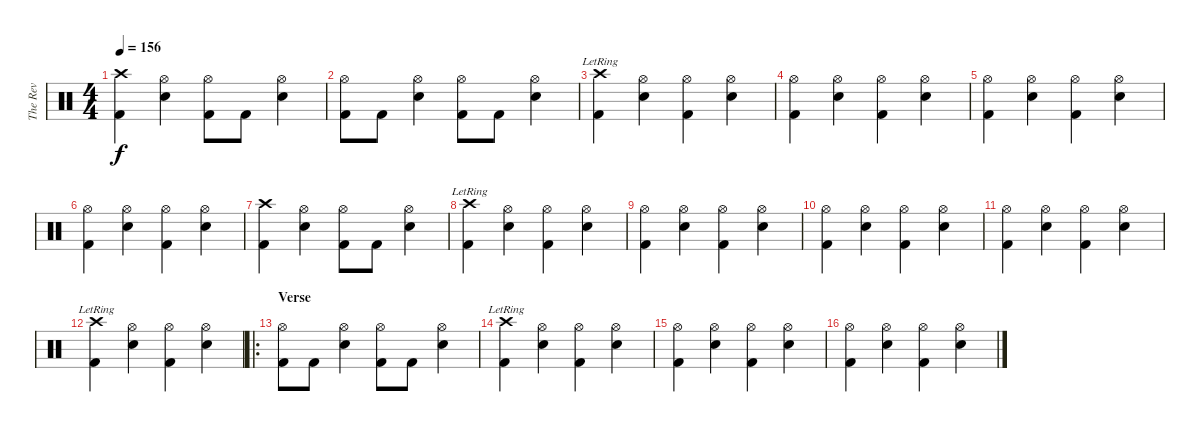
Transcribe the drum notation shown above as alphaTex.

\track ("The Rev" "The Rev") {instrument percussion}
\staff {score}
\articulation defaults
\ts (4 4)
\tempo 156
\clef neutral
\ks c
("Crash high (hit)" "Kick (hit) 2").4{dy f} ("Hi-Hat (open)" "Electric Snare (hit)").4 ("Hi-Hat (open)" "Kick (hit) 2").8 "Kick (hit) 2".8 ("Hi-Hat (open)" "Electric Snare (hit)").4 |
("Hi-Hat (open)" "Kick (hit) 2").8 "Kick (hit) 2".8 ("Hi-Hat (open)" "Electric Snare (hit)").4 ("Hi-Hat (open)" "Kick (hit) 2").8 "Kick (hit) 2".8 ("Hi-Hat (open)" "Electric Snare (hit)").4 |
("Crash high (hit)" "Kick (hit) 2"{lr}).4 ("Hi-Hat (open)" "Electric Snare (hit)").4 ("Hi-Hat (open)" "Kick (hit) 2").4 ("Hi-Hat (open)" "Electric Snare (hit)").4 |
("Hi-Hat (open)" "Kick (hit) 2").4 ("Hi-Hat (open)" "Electric Snare (hit)").4 ("Hi-Hat (open)" "Kick (hit) 2").4 ("Hi-Hat (open)" "Electric Snare (hit)").4 |
("Hi-Hat (open)" "Kick (hit) 2").4 ("Hi-Hat (open)" "Electric Snare (hit)").4 ("Hi-Hat (open)" "Kick (hit) 2").4 ("Hi-Hat (open)" "Electric Snare (hit)").4 |
("Hi-Hat (open)" "Kick (hit) 2").4 ("Hi-Hat (open)" "Electric Snare (hit)").4 ("Hi-Hat (open)" "Kick (hit) 2").4 ("Hi-Hat (open)" "Electric Snare (hit)").4 |
("Crash high (hit)" "Kick (hit) 2").4 ("Hi-Hat (open)" "Electric Snare (hit)").4 ("Hi-Hat (open)" "Kick (hit) 2").8 "Kick (hit) 2".8 ("Hi-Hat (open)" "Electric Snare (hit)").4 |
("Crash high (hit)" "Kick (hit) 2"{lr}).4 ("Hi-Hat (open)" "Electric Snare (hit)").4 ("Hi-Hat (open)" "Kick (hit) 2").4 ("Hi-Hat (open)" "Electric Snare (hit)").4 |
("Hi-Hat (open)" "Kick (hit) 2").4 ("Hi-Hat (open)" "Electric Snare (hit)").4 ("Hi-Hat (open)" "Kick (hit) 2").4 ("Hi-Hat (open)" "Electric Snare (hit)").4 |
("Hi-Hat (open)" "Kick (hit) 2").4 ("Hi-Hat (open)" "Electric Snare (hit)").4 ("Hi-Hat (open)" "Kick (hit) 2").4 ("Hi-Hat (open)" "Electric Snare (hit)").4 |
("Hi-Hat (open)" "Kick (hit) 2").4 ("Hi-Hat (open)" "Electric Snare (hit)").4 ("Hi-Hat (open)" "Kick (hit) 2").4 ("Hi-Hat (open)" "Electric Snare (hit)").4 |
("Crash high (hit)" "Kick (hit) 2"{lr}).4 ("Hi-Hat (open)" "Electric Snare (hit)").4 ("Hi-Hat (open)" "Kick (hit) 2").4 ("Hi-Hat (open)" "Electric Snare (hit)").4 |
\ro
\section ("" "Verse")
("Hi-Hat (open)" "Kick (hit) 2").8 "Kick (hit) 2".8 ("Hi-Hat (open)" "Electric Snare (hit)").4 ("Hi-Hat (open)" "Kick (hit) 2").8 "Kick (hit) 2".8 ("Hi-Hat (open)" "Electric Snare (hit)").4 |
("Crash high (hit)" "Kick (hit) 2"{lr}).4 ("Hi-Hat (open)" "Electric Snare (hit)").4 ("Hi-Hat (open)" "Kick (hit) 2").4 ("Hi-Hat (open)" "Electric Snare (hit)").4 |
("Hi-Hat (open)" "Kick (hit) 2").4 ("Hi-Hat (open)" "Electric Snare (hit)").4 ("Hi-Hat (open)" "Kick (hit) 2").4 ("Hi-Hat (open)" "Electric Snare (hit)").4 |
("Hi-Hat (open)" "Kick (hit) 2").4 ("Hi-Hat (open)" "Electric Snare (hit)").4 ("Hi-Hat (open)" "Kick (hit) 2").4 ("Hi-Hat (open)" "Electric Snare (hit)").4
